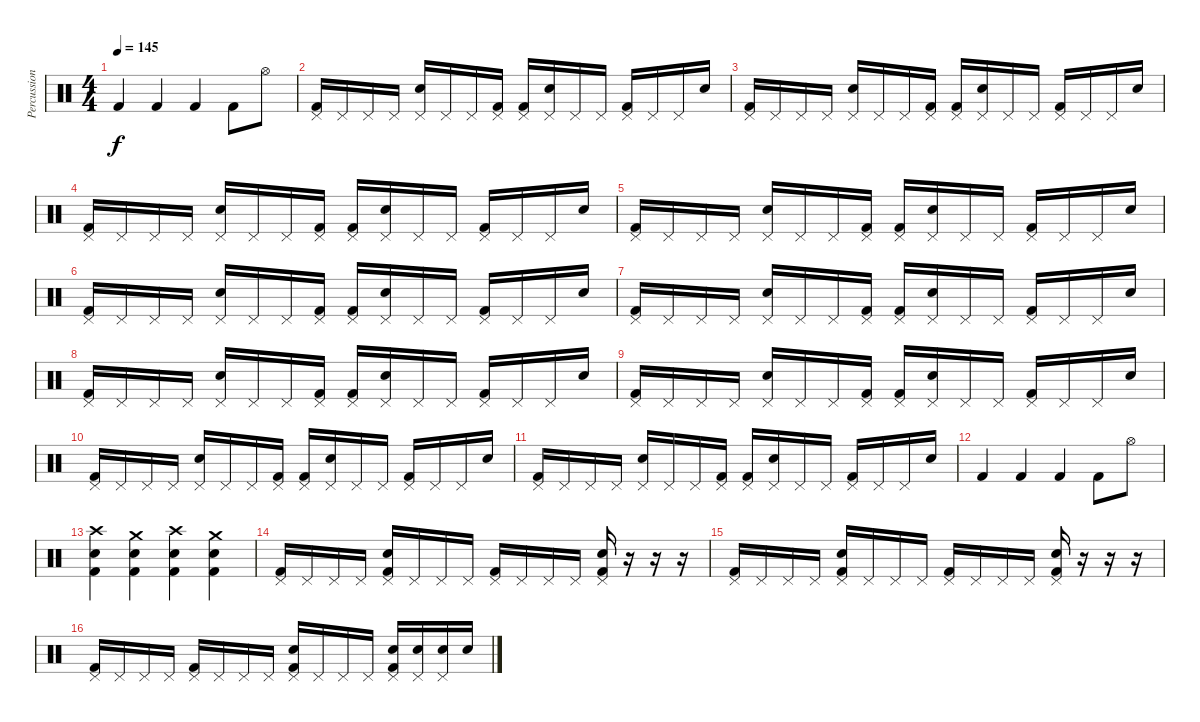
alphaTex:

\track ("Percussion" "Percussion") {instrument percussion}
\staff {score}
\articulation defaults
\ts (4 4)
\tempo 145
\clef neutral
\ks c "Kick (hit) 2".4{dy f} "Kick (hit) 2".4 "Kick (hit) 2".4 "Kick (hit) 2".8 "Hi-Hat (open)".8
|
("Kick (hit) 2" "Pedal Hi-Hat (hit)").16 "Pedal Hi-Hat (hit)".16 "Pedal Hi-Hat (hit)".16 "Pedal Hi-Hat (hit)".16 ("Electric Snare (hit)" "Pedal Hi-Hat (hit)").16 "Pedal Hi-Hat (hit)".16 "Pedal Hi-Hat (hit)".16 ("Kick (hit) 2" "Pedal Hi-Hat (hit)").16 ("Kick (hit) 2" "Pedal Hi-Hat (hit)").16 ("Electric Snare (hit)" "Pedal Hi-Hat (hit)").16 "Pedal Hi-Hat (hit)".16 "Pedal Hi-Hat (hit)".16 ("Kick (hit) 2" "Pedal Hi-Hat (hit)").16 "Pedal Hi-Hat (hit)".16 "Pedal Hi-Hat (hit)".16 "Electric Snare (hit)".16 |
("Kick (hit) 2" "Pedal Hi-Hat (hit)").16 "Pedal Hi-Hat (hit)".16 "Pedal Hi-Hat (hit)".16 "Pedal Hi-Hat (hit)".16 ("Electric Snare (hit)" "Pedal Hi-Hat (hit)").16 "Pedal Hi-Hat (hit)".16 "Pedal Hi-Hat (hit)".16 ("Kick (hit) 2" "Pedal Hi-Hat (hit)").16 ("Kick (hit) 2" "Pedal Hi-Hat (hit)").16 ("Electric Snare (hit)" "Pedal Hi-Hat (hit)").16 "Pedal Hi-Hat (hit)".16 "Pedal Hi-Hat (hit)".16 ("Kick (hit) 2" "Pedal Hi-Hat (hit)").16 "Pedal Hi-Hat (hit)".16 "Pedal Hi-Hat (hit)".16 "Electric Snare (hit)".16 |
("Kick (hit) 2" "Pedal Hi-Hat (hit)").16 "Pedal Hi-Hat (hit)".16 "Pedal Hi-Hat (hit)".16 "Pedal Hi-Hat (hit)".16 ("Electric Snare (hit)" "Pedal Hi-Hat (hit)").16 "Pedal Hi-Hat (hit)".16 "Pedal Hi-Hat (hit)".16 ("Kick (hit) 2" "Pedal Hi-Hat (hit)").16 ("Kick (hit) 2" "Pedal Hi-Hat (hit)").16 ("Electric Snare (hit)" "Pedal Hi-Hat (hit)").16 "Pedal Hi-Hat (hit)".16 "Pedal Hi-Hat (hit)".16 ("Kick (hit) 2" "Pedal Hi-Hat (hit)").16 "Pedal Hi-Hat (hit)".16 "Pedal Hi-Hat (hit)".16 "Electric Snare (hit)".16 |
("Kick (hit) 2" "Pedal Hi-Hat (hit)").16 "Pedal Hi-Hat (hit)".16 "Pedal Hi-Hat (hit)".16 "Pedal Hi-Hat (hit)".16 ("Electric Snare (hit)" "Pedal Hi-Hat (hit)").16 "Pedal Hi-Hat (hit)".16 "Pedal Hi-Hat (hit)".16 ("Kick (hit) 2" "Pedal Hi-Hat (hit)").16 ("Kick (hit) 2" "Pedal Hi-Hat (hit)").16 ("Electric Snare (hit)" "Pedal Hi-Hat (hit)").16 "Pedal Hi-Hat (hit)".16 "Pedal Hi-Hat (hit)".16 ("Kick (hit) 2" "Pedal Hi-Hat (hit)").16 "Pedal Hi-Hat (hit)".16 "Pedal Hi-Hat (hit)".16 "Electric Snare (hit)".16 |
("Kick (hit) 2" "Pedal Hi-Hat (hit)").16 "Pedal Hi-Hat (hit)".16 "Pedal Hi-Hat (hit)".16 "Pedal Hi-Hat (hit)".16 ("Electric Snare (hit)" "Pedal Hi-Hat (hit)").16 "Pedal Hi-Hat (hit)".16 "Pedal Hi-Hat (hit)".16 ("Kick (hit) 2" "Pedal Hi-Hat (hit)").16 ("Kick (hit) 2" "Pedal Hi-Hat (hit)").16 ("Electric Snare (hit)" "Pedal Hi-Hat (hit)").16 "Pedal Hi-Hat (hit)".16 "Pedal Hi-Hat (hit)".16 ("Kick (hit) 2" "Pedal Hi-Hat (hit)").16 "Pedal Hi-Hat (hit)".16 "Pedal Hi-Hat (hit)".16 "Electric Snare (hit)".16 |
("Kick (hit) 2" "Pedal Hi-Hat (hit)").16 "Pedal Hi-Hat (hit)".16 "Pedal Hi-Hat (hit)".16 "Pedal Hi-Hat (hit)".16 ("Electric Snare (hit)" "Pedal Hi-Hat (hit)").16 "Pedal Hi-Hat (hit)".16 "Pedal Hi-Hat (hit)".16 ("Kick (hit) 2" "Pedal Hi-Hat (hit)").16 ("Kick (hit) 2" "Pedal Hi-Hat (hit)").16 ("Electric Snare (hit)" "Pedal Hi-Hat (hit)").16 "Pedal Hi-Hat (hit)".16 "Pedal Hi-Hat (hit)".16 ("Kick (hit) 2" "Pedal Hi-Hat (hit)").16 "Pedal Hi-Hat (hit)".16 "Pedal Hi-Hat (hit)".16 "Electric Snare (hit)".16 |
("Kick (hit) 2" "Pedal Hi-Hat (hit)").16 "Pedal Hi-Hat (hit)".16 "Pedal Hi-Hat (hit)".16 "Pedal Hi-Hat (hit)".16 ("Electric Snare (hit)" "Pedal Hi-Hat (hit)").16 "Pedal Hi-Hat (hit)".16 "Pedal Hi-Hat (hit)".16 ("Kick (hit) 2" "Pedal Hi-Hat (hit)").16 ("Kick (hit) 2" "Pedal Hi-Hat (hit)").16 ("Electric Snare (hit)" "Pedal Hi-Hat (hit)").16 "Pedal Hi-Hat (hit)".16 "Pedal Hi-Hat (hit)".16 ("Kick (hit) 2" "Pedal Hi-Hat (hit)").16 "Pedal Hi-Hat (hit)".16 "Pedal Hi-Hat (hit)".16 "Electric Snare (hit)".16 |
("Kick (hit) 2" "Pedal Hi-Hat (hit)").16 "Pedal Hi-Hat (hit)".16 "Pedal Hi-Hat (hit)".16 "Pedal Hi-Hat (hit)".16 ("Electric Snare (hit)" "Pedal Hi-Hat (hit)").16 "Pedal Hi-Hat (hit)".16 "Pedal Hi-Hat (hit)".16 ("Kick (hit) 2" "Pedal Hi-Hat (hit)").16 ("Kick (hit) 2" "Pedal Hi-Hat (hit)").16 ("Electric Snare (hit)" "Pedal Hi-Hat (hit)").16 "Pedal Hi-Hat (hit)".16 "Pedal Hi-Hat (hit)".16 ("Kick (hit) 2" "Pedal Hi-Hat (hit)").16 "Pedal Hi-Hat (hit)".16 "Pedal Hi-Hat (hit)".16 "Electric Snare (hit)".16 |
("Kick (hit) 2" "Pedal Hi-Hat (hit)").16 "Pedal Hi-Hat (hit)".16 "Pedal Hi-Hat (hit)".16 "Pedal Hi-Hat (hit)".16 ("Electric Snare (hit)" "Pedal Hi-Hat (hit)").16 "Pedal Hi-Hat (hit)".16 "Pedal Hi-Hat (hit)".16 ("Kick (hit) 2" "Pedal Hi-Hat (hit)").16 ("Kick (hit) 2" "Pedal Hi-Hat (hit)").16 ("Electric Snare (hit)" "Pedal Hi-Hat (hit)").16 "Pedal Hi-Hat (hit)".16 "Pedal Hi-Hat (hit)".16 ("Kick (hit) 2" "Pedal Hi-Hat (hit)").16 "Pedal Hi-Hat (hit)".16 "Pedal Hi-Hat (hit)".16 "Electric Snare (hit)".16 |
("Kick (hit) 2" "Pedal Hi-Hat (hit)").16 "Pedal Hi-Hat (hit)".16 "Pedal Hi-Hat (hit)".16 "Pedal Hi-Hat (hit)".16 ("Electric Snare (hit)" "Pedal Hi-Hat (hit)").16 "Pedal Hi-Hat (hit)".16 "Pedal Hi-Hat (hit)".16 ("Kick (hit) 2" "Pedal Hi-Hat (hit)").16 ("Kick (hit) 2" "Pedal Hi-Hat (hit)").16 ("Electric Snare (hit)" "Pedal Hi-Hat (hit)").16 "Pedal Hi-Hat (hit)".16 "Pedal Hi-Hat (hit)".16 ("Kick (hit) 2" "Pedal Hi-Hat (hit)").16 "Pedal Hi-Hat (hit)".16 "Pedal Hi-Hat (hit)".16 "Electric Snare (hit)".16 |
"Kick (hit) 2".4 "Kick (hit) 2".4 "Kick (hit) 2".4 "Kick (hit) 2".8 "Hi-Hat (open)".8 |
("Electric Snare (hit)" "Crash high (hit)" "Kick (hit) 2").4 ("Electric Snare (hit)" "Crash medium (hit)" "Kick (hit) 2").4 ("Electric Snare (hit)" "Crash high (hit)" "Kick (hit) 2").4 ("Electric Snare (hit)" "Crash medium (hit)" "Kick (hit) 2").4 |
("Kick (hit) 2" "Pedal Hi-Hat (hit)").16 "Pedal Hi-Hat (hit)".16 "Pedal Hi-Hat (hit)".16 "Pedal Hi-Hat (hit)".16 ("Electric Snare (hit)" "Kick (hit) 2" "Pedal Hi-Hat (hit)").16 "Pedal Hi-Hat (hit)".16 "Pedal Hi-Hat (hit)".16 "Pedal Hi-Hat (hit)".16 ("Kick (hit) 2" "Pedal Hi-Hat (hit)").16 "Pedal Hi-Hat (hit)".16 "Pedal Hi-Hat (hit)".16 "Pedal Hi-Hat (hit)".16 ("Electric Snare (hit)" "Kick (hit) 2" "Pedal Hi-Hat (hit)").16 r.16 r.16 r.16 |
("Kick (hit) 2" "Pedal Hi-Hat (hit)").16 "Pedal Hi-Hat (hit)".16 "Pedal Hi-Hat (hit)".16 "Pedal Hi-Hat (hit)".16 ("Electric Snare (hit)" "Kick (hit) 2" "Pedal Hi-Hat (hit)").16 "Pedal Hi-Hat (hit)".16 "Pedal Hi-Hat (hit)".16 "Pedal Hi-Hat (hit)".16 ("Kick (hit) 2" "Pedal Hi-Hat (hit)").16 "Pedal Hi-Hat (hit)".16 "Pedal Hi-Hat (hit)".16 "Pedal Hi-Hat (hit)".16 ("Electric Snare (hit)" "Kick (hit) 2" "Pedal Hi-Hat (hit)").16 r.16 r.16 r.16 |
("Kick (hit) 2" "Pedal Hi-Hat (hit)").16 "Pedal Hi-Hat (hit)".16 "Pedal Hi-Hat (hit)".16 "Pedal Hi-Hat (hit)".16 ("Kick (hit) 2" "Pedal Hi-Hat (hit)").16 "Pedal Hi-Hat (hit)".16 "Pedal Hi-Hat (hit)".16 "Pedal Hi-Hat (hit)".16 ("Electric Snare (hit)" "Kick (hit) 2" "Pedal Hi-Hat (hit)").16 "Pedal Hi-Hat (hit)".16 "Pedal Hi-Hat (hit)".16 "Pedal Hi-Hat (hit)".16 ("Electric Snare (hit)" "Kick (hit) 2" "Pedal Hi-Hat (hit)").16 ("Electric Snare (hit)" "Pedal Hi-Hat (hit)").16 ("Electric Snare (hit)" "Pedal Hi-Hat (hit)").16 "Electric Snare (hit)".16
